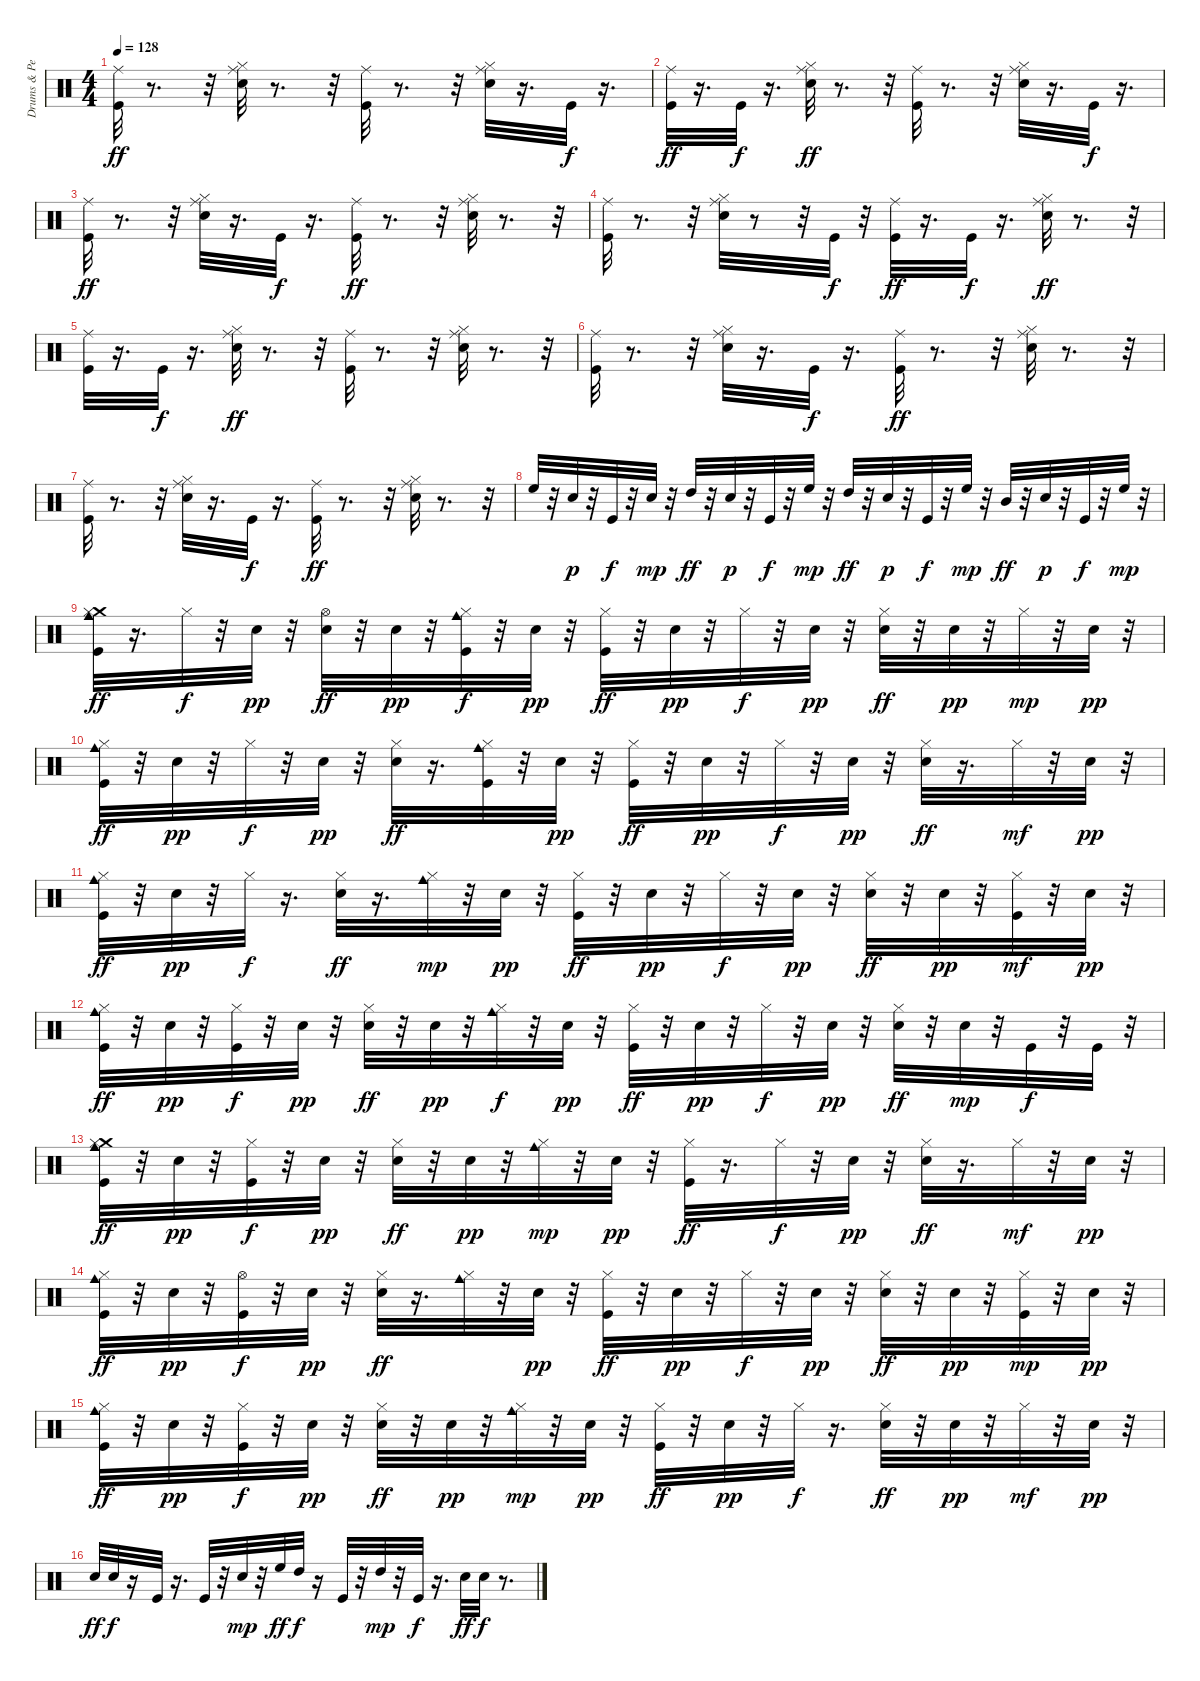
\track ("Drums & Percussion" "Drums & Pe") {instrument percussion}
\staff {score}
\articulation defaults
\ts (4 4)
\tempo 128
\clef neutral
\ks c
("Kick (hit)" "Ride (middle)").32{dy ff} r.8{d} r.32 ("Hi-Hat (closed)" "Electric Snare (hit)" "Ride (middle)").32 r.8{d} r.32 ("Kick (hit)" "Ride (middle)").32 r.8{d} r.32 ("Hi-Hat (closed)" "Electric Snare (hit)" "Ride (middle)").32 r.16{d} "Kick (hit)".32{dy f} r.16{d} |
("Kick (hit)" "Ride (middle)").32{dy ff} r.16{d} "Kick (hit)".32{dy f} r.16{d} ("Hi-Hat (closed)" "Electric Snare (hit)" "Ride (middle)").32{dy ff} r.8{d} r.32 ("Kick (hit)" "Ride (middle)").32 r.8{d} r.32 ("Hi-Hat (closed)" "Electric Snare (hit)" "Ride (middle)").32 r.16{d} "Kick (hit)".32{dy f} r.16{d} |
("Kick (hit)" "Ride (middle)").32{dy ff} r.8{d} r.32 ("Hi-Hat (closed)" "Electric Snare (hit)" "Ride (middle)").32 r.16{d} "Kick (hit)".32{dy f} r.16{d} ("Kick (hit)" "Ride (middle)").32{dy ff} r.8{d} r.32 ("Hi-Hat (closed)" "Electric Snare (hit)" "Ride (middle)").32 r.8{d} r.32 |
("Kick (hit)" "Ride (middle)").32 r.8{d} r.32 ("Hi-Hat (closed)" "Electric Snare (hit)" "Ride (middle)").32 r.8 r.32 "Kick (hit)".32{dy f} r.32 ("Kick (hit)" "Ride (middle)").32{dy ff} r.16{d} "Kick (hit)".32{dy f} r.16{d} ("Hi-Hat (closed)" "Electric Snare (hit)" "Ride (middle)").32{dy ff} r.8{d} r.32 |
("Kick (hit)" "Ride (middle)").32 r.16{d} "Kick (hit)".32{dy f} r.16{d} ("Hi-Hat (closed)" "Electric Snare (hit)" "Ride (middle)").32{dy ff} r.8{d} r.32 ("Kick (hit)" "Ride (middle)").32 r.8{d} r.32 ("Hi-Hat (closed)" "Electric Snare (hit)" "Ride (middle)").32 r.8{d} r.32 |
("Kick (hit)" "Ride (middle)").32 r.8{d} r.32 ("Hi-Hat (closed)" "Electric Snare (hit)" "Ride (middle)").32 r.16{d} "Kick (hit)".32{dy f} r.16{d} ("Kick (hit)" "Ride (middle)").32{dy ff} r.8{d} r.32 ("Hi-Hat (closed)" "Electric Snare (hit)" "Ride (middle)").32 r.8{d} r.32 |
("Kick (hit)" "Ride (middle)").32 r.8{d} r.32 ("Hi-Hat (closed)" "Electric Snare (hit)" "Ride (middle)").32 r.16{d} "Kick (hit)".32{dy f} r.16{d} ("Kick (hit)" "Ride (middle)").32{dy ff} r.8{d} r.32 ("Hi-Hat (closed)" "Electric Snare (hit)" "Ride (middle)").32 r.8{d} r.32 |
"High Floor Tom (hit)".32 r.32 "Electric Snare (hit)".32{dy p} r.32 "Kick (hit)".32{dy f} r.32 "Electric Snare (hit)".32{dy mp} r.32 "High Tom (hit)".32{dy ff} r.32 "Electric Snare (hit)".32{dy p} r.32 "Kick (hit)".32{dy f} r.32 "High Floor Tom (hit)".32{dy mp} r.32 "High Tom (hit)".32{dy ff} r.32 "Electric Snare (hit)".32{dy p} r.32 "Kick (hit)".32{dy f} r.32 "High Floor Tom (hit)".32{dy mp} r.32 "Mid Tom (hit)".32{dy ff} r.32 "Electric Snare (hit)".32{dy p} r.32 "Kick (hit)".32{dy f} r.32 "High Floor Tom (hit)".32{dy mp} r.32 |
("Crash medium (hit)" "Kick (hit)" "Hi-Hat (closed)" "Cowbell medium (hit)").32{dy ff} r.16{d} "Hi-Hat (closed)".32{dy f} r.32 "Electric Snare (hit)".32{dy pp} r.32 ("Hi-Hat (open)" "Electric Snare (hit)").32{dy ff} r.32 "Electric Snare (hit)".32{dy pp} r.32 ("Kick (hit)" "Hi-Hat (closed)" "Cowbell medium (hit)").32{dy f} r.32 "Electric Snare (hit)".32{dy pp} r.32 ("Kick (hit)" "Hi-Hat (closed)").32{dy ff} r.32 "Electric Snare (hit)".32{dy pp} r.32 "Hi-Hat (closed)".32{dy f} r.32 "Electric Snare (hit)".32{dy pp} r.32 ("Hi-Hat (closed)" "Electric Snare (hit)").32{dy ff} r.32 "Electric Snare (hit)".32{dy pp} r.32 "Hi-Hat (closed)".32{dy mp} r.32 "Electric Snare (hit)".32{dy pp} r.32 |
("Kick (hit)" "Hi-Hat (closed)" "Cowbell medium (hit)").32{dy ff} r.32 "Electric Snare (hit)".32{dy pp} r.32 "Hi-Hat (closed)".32{dy f} r.32 "Electric Snare (hit)".32{dy pp} r.32 ("Hi-Hat (closed)" "Electric Snare (hit)").32{dy ff} r.16{d} ("Kick (hit)" "Hi-Hat (closed)" "Cowbell medium (hit)").32 r.32 "Electric Snare (hit)".32{dy pp} r.32 ("Kick (hit)" "Hi-Hat (closed)").32{dy ff} r.32 "Electric Snare (hit)".32{dy pp} r.32 "Hi-Hat (closed)".32{dy f} r.32 "Electric Snare (hit)".32{dy pp} r.32 ("Hi-Hat (closed)" "Electric Snare (hit)").32{dy ff} r.16{d} "Hi-Hat (closed)".32{dy mf} r.32 "Electric Snare (hit)".32{dy pp} r.32 |
("Kick (hit)" "Hi-Hat (closed)" "Cowbell medium (hit)").32{dy ff} r.32 "Electric Snare (hit)".32{dy pp} r.32 "Hi-Hat (closed)".32{dy f} r.16{d} ("Hi-Hat (closed)" "Electric Snare (hit)").32{dy ff} r.16{d} ("Hi-Hat (closed)" "Cowbell medium (hit)").32{dy mp} r.32 "Electric Snare (hit)".32{dy pp} r.32 ("Kick (hit)" "Hi-Hat (closed)").32{dy ff} r.32 "Electric Snare (hit)".32{dy pp} r.32 "Hi-Hat (closed)".32{dy f} r.32 "Electric Snare (hit)".32{dy pp} r.32 ("Hi-Hat (closed)" "Electric Snare (hit)").32{dy ff} r.32 "Electric Snare (hit)".32{dy pp} r.32 ("Kick (hit)" "Hi-Hat (closed)").32{dy mf} r.32 "Electric Snare (hit)".32{dy pp} r.32 |
("Kick (hit)" "Hi-Hat (closed)" "Cowbell medium (hit)").32{dy ff} r.32 "Electric Snare (hit)".32{dy pp} r.32 ("Kick (hit)" "Hi-Hat (closed)").32{dy f} r.32 "Electric Snare (hit)".32{dy pp} r.32 ("Hi-Hat (closed)" "Electric Snare (hit)").32{dy ff} r.32 "Electric Snare (hit)".32{dy pp} r.32 ("Hi-Hat (closed)" "Cowbell medium (hit)").32{dy f} r.32 "Electric Snare (hit)".32{dy pp} r.32 ("Kick (hit)" "Hi-Hat (closed)").32{dy ff} r.32 "Electric Snare (hit)".32{dy pp} r.32 "Hi-Hat (closed)".32{dy f} r.32 "Electric Snare (hit)".32{dy pp} r.32 ("Hi-Hat (closed)" "Electric Snare (hit)").32{dy ff} r.32 "Electric Snare (hit)".32{dy mp} r.32 "Kick (hit)".32{dy f} r.32 "Kick (hit)".32 r.32 |
("Crash medium (hit)" "Kick (hit)" "Hi-Hat (closed)" "Cowbell medium (hit)").32{dy ff} r.32 "Electric Snare (hit)".32{dy pp} r.32 ("Kick (hit)" "Hi-Hat (closed)").32{dy f} r.32 "Electric Snare (hit)".32{dy pp} r.32 ("Hi-Hat (closed)" "Electric Snare (hit)").32{dy ff} r.32 "Electric Snare (hit)".32{dy pp} r.32 ("Hi-Hat (closed)" "Cowbell medium (hit)").32{dy mp} r.32 "Electric Snare (hit)".32{dy pp} r.32 ("Kick (hit)" "Hi-Hat (closed)").32{dy ff} r.16{d} "Hi-Hat (closed)".32{dy f} r.32 "Electric Snare (hit)".32{dy pp} r.32 ("Hi-Hat (closed)" "Electric Snare (hit)").32{dy ff} r.16{d} "Hi-Hat (closed)".32{dy mf} r.32 "Electric Snare (hit)".32{dy pp} r.32 |
("Kick (hit)" "Hi-Hat (closed)" "Cowbell medium (hit)").32{dy ff} r.32 "Electric Snare (hit)".32{dy pp} r.32 ("Kick (hit)" "Hi-Hat (open)").32{dy f} r.32 "Electric Snare (hit)".32{dy pp} r.32 ("Hi-Hat (closed)" "Electric Snare (hit)").32{dy ff} r.16{d} ("Hi-Hat (closed)" "Cowbell medium (hit)").32 r.32 "Electric Snare (hit)".32{dy pp} r.32 ("Kick (hit)" "Hi-Hat (closed)").32{dy ff} r.32 "Electric Snare (hit)".32{dy pp} r.32 "Hi-Hat (closed)".32{dy f} r.32 "Electric Snare (hit)".32{dy pp} r.32 ("Hi-Hat (closed)" "Electric Snare (hit)").32{dy ff} r.32 "Electric Snare (hit)".32{dy pp} r.32 ("Kick (hit)" "Hi-Hat (closed)").32{dy mp} r.32 "Electric Snare (hit)".32{dy pp} r.32 |
("Kick (hit)" "Hi-Hat (closed)" "Cowbell medium (hit)").32{dy ff} r.32 "Electric Snare (hit)".32{dy pp} r.32 ("Kick (hit)" "Hi-Hat (closed)").32{dy f} r.32 "Electric Snare (hit)".32{dy pp} r.32 ("Hi-Hat (closed)" "Electric Snare (hit)").32{dy ff} r.32 "Electric Snare (hit)".32{dy pp} r.32 ("Hi-Hat (closed)" "Cowbell medium (hit)").32{dy mp} r.32 "Electric Snare (hit)".32{dy pp} r.32 ("Kick (hit)" "Hi-Hat (closed)").32{dy ff} r.32 "Electric Snare (hit)".32{dy pp} r.32 "Hi-Hat (closed)".32{dy f} r.16{d} ("Hi-Hat (closed)" "Electric Snare (hit)").32{dy ff} r.32 "Electric Snare (hit)".32{dy pp} r.32 "Hi-Hat (closed)".32{dy mf} r.32 "Electric Snare (hit)".32{dy pp} r.32 |
"Electric Snare (hit)".32{dy ff} "Electric Snare (hit)".32{dy f} r.16 "Kick (hit)".32 r.16{d} "Kick (hit)".32 r.32 "Electric Snare (hit)".32{dy mp} r.32 "High Floor Tom (hit)".32{dy ff} "High Tom (hit)".32{dy f} r.16 "Kick (hit)".32 r.32 "High Tom (hit)".32{dy mp} r.32 "Kick (hit)".32{dy f} r.16{d} "Electric Snare (hit)".32{dy ff} "Electric Snare (hit)".32{dy f} r.8{d}
